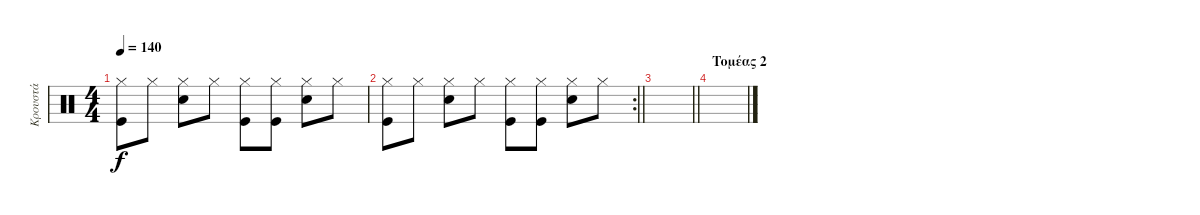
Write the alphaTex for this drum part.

\track ("Κρουστά" "Κρουστά") {instrument percussion}
\staff {score}
\articulation defaults
\ts (4 4)
\tempo 140
\clef neutral
\ks c
("Hi-Hat (closed)" "Kick (hit)").8{dy f} "Hi-Hat (closed)".8 ("Hi-Hat (closed)" "Snare (hit) 2").8 "Hi-Hat (closed)".8 ("Hi-Hat (closed)" "Kick (hit)").8 ("Hi-Hat (closed)" "Kick (hit)").8 ("Hi-Hat (closed)" "Snare (hit) 2").8 "Hi-Hat (closed)".8 |
\rc 2
\barLineRight lightlight
("Hi-Hat (closed)" "Kick (hit)").8 "Hi-Hat (closed)".8 ("Hi-Hat (closed)" "Snare (hit) 2").8 "Hi-Hat (closed)".8 ("Hi-Hat (closed)" "Kick (hit)").8 ("Hi-Hat (closed)" "Kick (hit)").8 ("Hi-Hat (closed)" "Snare (hit) 2").8 "Hi-Hat (closed)".8 |
\barLineRight lightlight
|
\section ("" "Τομέας 2")
